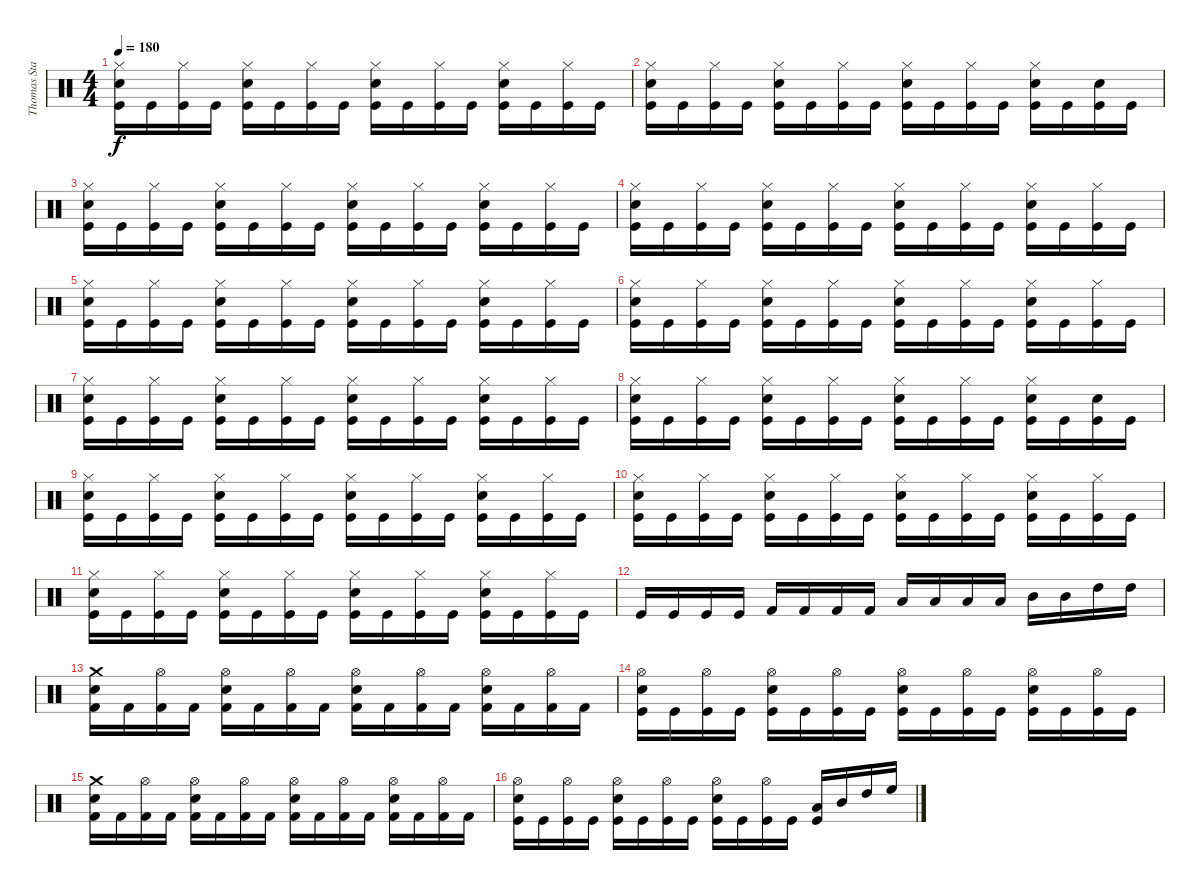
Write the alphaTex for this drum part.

\track ("Thomas Stauch" "Thomas Sta") {instrument percussion}
\staff {score}
\articulation defaults
\ts (4 4)
\tempo 180
\clef neutral
\ks c
("Kick (hit)" "Snare (hit) 2" "Hi-Hat (closed)").16{dy f} "Kick (hit)".16 ("Kick (hit)" "Hi-Hat (closed)").16 "Kick (hit)".16 ("Kick (hit)" "Snare (hit) 2" "Hi-Hat (closed)").16 "Kick (hit)".16 ("Kick (hit)" "Hi-Hat (closed)").16 "Kick (hit)".16 ("Kick (hit)" "Snare (hit) 2" "Hi-Hat (closed)").16 "Kick (hit)".16 ("Kick (hit)" "Hi-Hat (closed)").16 "Kick (hit)".16 ("Kick (hit)" "Snare (hit) 2" "Hi-Hat (closed)").16 "Kick (hit)".16 ("Kick (hit)" "Hi-Hat (closed)").16 "Kick (hit)".16 |
("Kick (hit)" "Snare (hit) 2" "Hi-Hat (closed)").16 "Kick (hit)".16 ("Kick (hit)" "Hi-Hat (closed)").16 "Kick (hit)".16 ("Kick (hit)" "Snare (hit) 2" "Hi-Hat (closed)").16 "Kick (hit)".16 ("Kick (hit)" "Hi-Hat (closed)").16 "Kick (hit)".16 ("Kick (hit)" "Snare (hit) 2" "Hi-Hat (closed)").16 "Kick (hit)".16 ("Kick (hit)" "Hi-Hat (closed)").16 "Kick (hit)".16 ("Kick (hit)" "Snare (hit) 2" "Hi-Hat (closed)").16 "Kick (hit)".16 ("Kick (hit)" "Snare (hit) 2").16 "Kick (hit)".16 |
("Kick (hit)" "Snare (hit) 2" "Hi-Hat (closed)").16 "Kick (hit)".16 ("Kick (hit)" "Hi-Hat (closed)").16 "Kick (hit)".16 ("Kick (hit)" "Snare (hit) 2" "Hi-Hat (closed)").16 "Kick (hit)".16 ("Kick (hit)" "Hi-Hat (closed)").16 "Kick (hit)".16 ("Kick (hit)" "Snare (hit) 2" "Hi-Hat (closed)").16 "Kick (hit)".16 ("Kick (hit)" "Hi-Hat (closed)").16 "Kick (hit)".16 ("Kick (hit)" "Snare (hit) 2" "Hi-Hat (closed)").16 "Kick (hit)".16 ("Kick (hit)" "Hi-Hat (closed)").16 "Kick (hit)".16 |
("Kick (hit)" "Snare (hit) 2" "Hi-Hat (closed)").16 "Kick (hit)".16 ("Kick (hit)" "Hi-Hat (closed)").16 "Kick (hit)".16 ("Kick (hit)" "Snare (hit) 2" "Hi-Hat (closed)").16 "Kick (hit)".16 ("Kick (hit)" "Hi-Hat (closed)").16 "Kick (hit)".16 ("Kick (hit)" "Snare (hit) 2" "Hi-Hat (closed)").16 "Kick (hit)".16 ("Kick (hit)" "Hi-Hat (closed)").16 "Kick (hit)".16 ("Kick (hit)" "Snare (hit) 2" "Hi-Hat (closed)").16 "Kick (hit)".16 ("Kick (hit)" "Hi-Hat (closed)").16 "Kick (hit)".16 |
("Kick (hit)" "Snare (hit) 2" "Hi-Hat (closed)").16 "Kick (hit)".16 ("Kick (hit)" "Hi-Hat (closed)").16 "Kick (hit)".16 ("Kick (hit)" "Snare (hit) 2" "Hi-Hat (closed)").16 "Kick (hit)".16 ("Kick (hit)" "Hi-Hat (closed)").16 "Kick (hit)".16 ("Kick (hit)" "Snare (hit) 2" "Hi-Hat (closed)").16 "Kick (hit)".16 ("Kick (hit)" "Hi-Hat (closed)").16 "Kick (hit)".16 ("Kick (hit)" "Snare (hit) 2" "Hi-Hat (closed)").16 "Kick (hit)".16 ("Kick (hit)" "Hi-Hat (closed)").16 "Kick (hit)".16 |
("Kick (hit)" "Snare (hit) 2" "Hi-Hat (closed)").16 "Kick (hit)".16 ("Kick (hit)" "Hi-Hat (closed)").16 "Kick (hit)".16 ("Kick (hit)" "Snare (hit) 2" "Hi-Hat (closed)").16 "Kick (hit)".16 ("Kick (hit)" "Hi-Hat (closed)").16 "Kick (hit)".16 ("Kick (hit)" "Snare (hit) 2" "Hi-Hat (closed)").16 "Kick (hit)".16 ("Kick (hit)" "Hi-Hat (closed)").16 "Kick (hit)".16 ("Kick (hit)" "Snare (hit) 2" "Hi-Hat (closed)").16 "Kick (hit)".16 ("Kick (hit)" "Hi-Hat (closed)").16 "Kick (hit)".16 |
("Kick (hit)" "Snare (hit) 2" "Hi-Hat (closed)").16 "Kick (hit)".16 ("Kick (hit)" "Hi-Hat (closed)").16 "Kick (hit)".16 ("Kick (hit)" "Snare (hit) 2" "Hi-Hat (closed)").16 "Kick (hit)".16 ("Kick (hit)" "Hi-Hat (closed)").16 "Kick (hit)".16 ("Kick (hit)" "Snare (hit) 2" "Hi-Hat (closed)").16 "Kick (hit)".16 ("Kick (hit)" "Hi-Hat (closed)").16 "Kick (hit)".16 ("Kick (hit)" "Snare (hit) 2" "Hi-Hat (closed)").16 "Kick (hit)".16 ("Kick (hit)" "Hi-Hat (closed)").16 "Kick (hit)".16 |
("Kick (hit)" "Snare (hit) 2" "Hi-Hat (closed)").16 "Kick (hit)".16 ("Kick (hit)" "Hi-Hat (closed)").16 "Kick (hit)".16 ("Kick (hit)" "Snare (hit) 2" "Hi-Hat (closed)").16 "Kick (hit)".16 ("Kick (hit)" "Hi-Hat (closed)").16 "Kick (hit)".16 ("Kick (hit)" "Snare (hit) 2" "Hi-Hat (closed)").16 "Kick (hit)".16 ("Kick (hit)" "Hi-Hat (closed)").16 "Kick (hit)".16 ("Kick (hit)" "Snare (hit) 2" "Hi-Hat (closed)").16 "Kick (hit)".16 ("Kick (hit)" "Snare (hit) 2").16 "Kick (hit)".16 |
("Kick (hit)" "Snare (hit) 2" "Hi-Hat (closed)").16 "Kick (hit)".16 ("Kick (hit)" "Hi-Hat (closed)").16 "Kick (hit)".16 ("Kick (hit)" "Snare (hit) 2" "Hi-Hat (closed)").16 "Kick (hit)".16 ("Kick (hit)" "Hi-Hat (closed)").16 "Kick (hit)".16 ("Kick (hit)" "Snare (hit) 2" "Hi-Hat (closed)").16 "Kick (hit)".16 ("Kick (hit)" "Hi-Hat (closed)").16 "Kick (hit)".16 ("Kick (hit)" "Snare (hit) 2" "Hi-Hat (closed)").16 "Kick (hit)".16 ("Kick (hit)" "Hi-Hat (closed)").16 "Kick (hit)".16 |
("Kick (hit)" "Snare (hit) 2" "Hi-Hat (closed)").16 "Kick (hit)".16 ("Kick (hit)" "Hi-Hat (closed)").16 "Kick (hit)".16 ("Kick (hit)" "Snare (hit) 2" "Hi-Hat (closed)").16 "Kick (hit)".16 ("Kick (hit)" "Hi-Hat (closed)").16 "Kick (hit)".16 ("Kick (hit)" "Snare (hit) 2" "Hi-Hat (closed)").16 "Kick (hit)".16 ("Kick (hit)" "Hi-Hat (closed)").16 "Kick (hit)".16 ("Kick (hit)" "Snare (hit) 2" "Hi-Hat (closed)").16 "Kick (hit)".16 ("Kick (hit)" "Hi-Hat (closed)").16 "Kick (hit)".16 |
("Kick (hit)" "Snare (hit) 2" "Hi-Hat (closed)").16 "Kick (hit)".16 ("Kick (hit)" "Hi-Hat (closed)").16 "Kick (hit)".16 ("Kick (hit)" "Snare (hit) 2" "Hi-Hat (closed)").16 "Kick (hit)".16 ("Kick (hit)" "Hi-Hat (closed)").16 "Kick (hit)".16 ("Kick (hit)" "Snare (hit) 2" "Hi-Hat (closed)").16 "Kick (hit)".16 ("Kick (hit)" "Hi-Hat (closed)").16 "Kick (hit)".16 ("Kick (hit)" "Snare (hit) 2" "Hi-Hat (closed)").16 "Kick (hit)".16 ("Kick (hit)" "Hi-Hat (closed)").16 "Kick (hit)".16 |
"Kick (hit)".16 "Kick (hit)".16 "Kick (hit)".16 "Kick (hit)".16 "Kick (hit) 2".16 "Kick (hit) 2".16 "Kick (hit) 2".16 "Kick (hit) 2".16 "Low Tom (hit)".16 "Low Tom (hit)".16 "Low Tom (hit)".16 "Low Tom (hit)".16 "Mid Tom (hit)".16 "Mid Tom (hit)".16 "High Tom (hit)".16 "High Tom (hit)".16 |
("Kick (hit) 2" "Snare (hit) 2" "Crash medium (hit)").16 "Kick (hit) 2".16 ("Kick (hit) 2" "Hi-Hat (open)").16 "Kick (hit) 2".16 ("Kick (hit) 2" "Snare (hit) 2" "Hi-Hat (open)").16 "Kick (hit) 2".16 ("Kick (hit) 2" "Hi-Hat (open)").16 "Kick (hit) 2".16 ("Kick (hit) 2" "Snare (hit) 2" "Hi-Hat (open)").16 "Kick (hit) 2".16 ("Kick (hit) 2" "Hi-Hat (open)").16 "Kick (hit) 2".16 ("Kick (hit) 2" "Snare (hit) 2" "Hi-Hat (open)").16 "Kick (hit) 2".16 ("Kick (hit) 2" "Hi-Hat (open)").16 "Kick (hit) 2".16 |
("Kick (hit)" "Snare (hit) 2" "Hi-Hat (open)").16 "Kick (hit)".16 ("Kick (hit)" "Hi-Hat (open)").16 "Kick (hit)".16 ("Kick (hit)" "Snare (hit) 2" "Hi-Hat (open)").16 "Kick (hit)".16 ("Kick (hit)" "Hi-Hat (open)").16 "Kick (hit)".16 ("Kick (hit)" "Snare (hit) 2" "Hi-Hat (open)").16 "Kick (hit)".16 ("Kick (hit)" "Hi-Hat (open)").16 "Kick (hit)".16 ("Kick (hit)" "Snare (hit) 2" "Hi-Hat (open)").16 "Kick (hit)".16 ("Kick (hit)" "Hi-Hat (open)").16 "Kick (hit)".16 |
("Kick (hit) 2" "Snare (hit) 2" "Crash medium (hit)").16 "Kick (hit) 2".16 ("Kick (hit) 2" "Hi-Hat (open)").16 "Kick (hit) 2".16 ("Kick (hit) 2" "Snare (hit) 2" "Hi-Hat (open)").16 "Kick (hit) 2".16 ("Kick (hit) 2" "Hi-Hat (open)").16 "Kick (hit) 2".16 ("Kick (hit) 2" "Snare (hit) 2" "Hi-Hat (open)").16 "Kick (hit) 2".16 ("Kick (hit) 2" "Hi-Hat (open)").16 "Kick (hit) 2".16 ("Kick (hit) 2" "Snare (hit) 2" "Hi-Hat (open)").16 "Kick (hit) 2".16 ("Kick (hit) 2" "Hi-Hat (open)").16 "Kick (hit) 2".16 |
("Kick (hit)" "Snare (hit) 2" "Hi-Hat (open)").16 "Kick (hit)".16 ("Kick (hit)" "Hi-Hat (open)").16 "Kick (hit)".16 ("Kick (hit)" "Snare (hit) 2" "Hi-Hat (open)").16 "Kick (hit)".16 ("Kick (hit)" "Hi-Hat (open)").16 "Kick (hit)".16 ("Kick (hit)" "Snare (hit) 2" "Hi-Hat (open)").16 "Kick (hit)".16 ("Kick (hit)" "Hi-Hat (open)").16 "Kick (hit)".16 ("Kick (hit)" "Low Tom (hit)").16 "Mid Tom (hit)".16 "High Tom (hit)".16 "High Floor Tom (hit)".16
